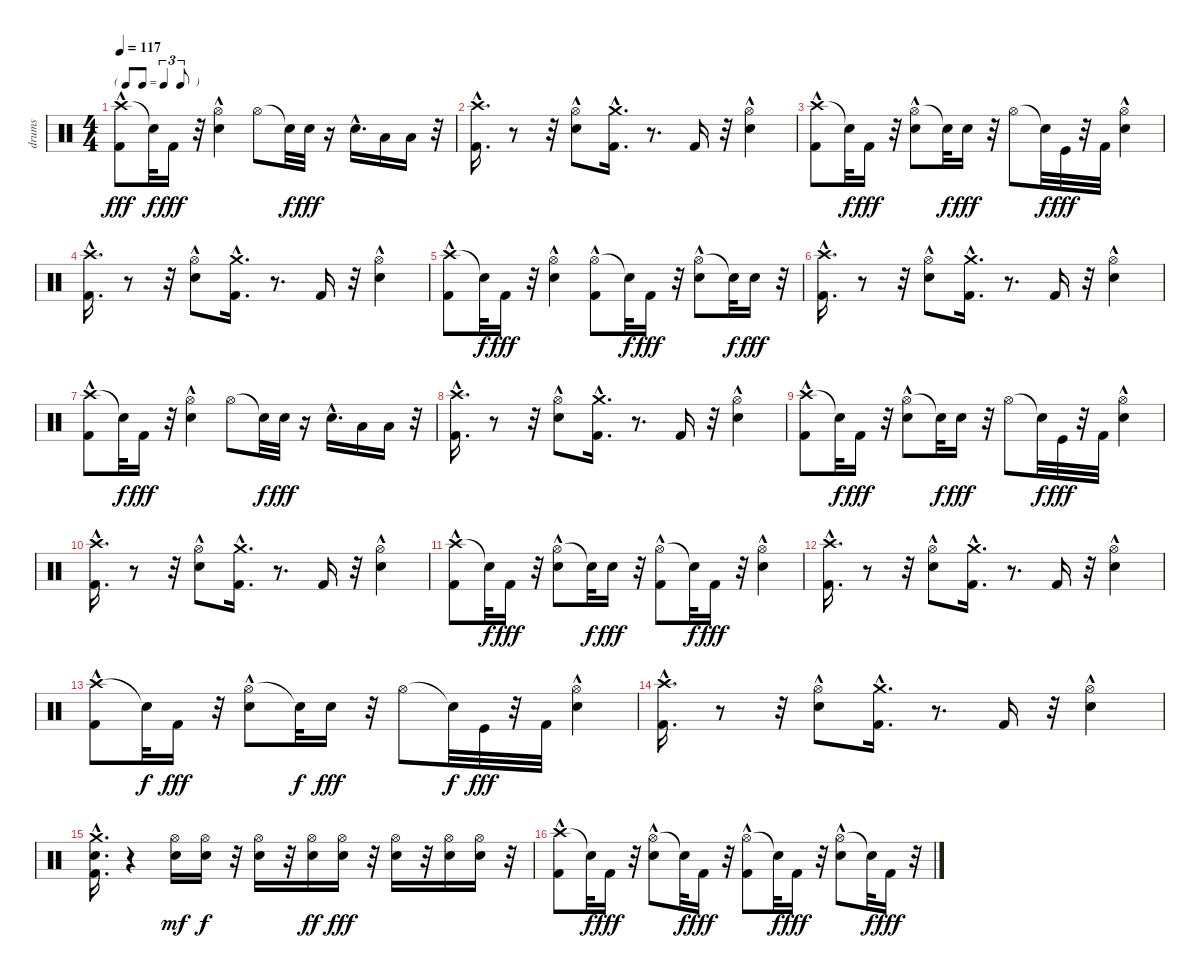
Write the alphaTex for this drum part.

\track ("drums" "drums") {instrument percussion}
\staff {score}
\articulation defaults
\ts (4 4)
\tf triplet8th
\tempo 117
\clef neutral
\ks c
("Crash high (hit)" "Kick (hit) 2"{hac}).8{dy fff} "Snare (hit)"{t}.32{dy f} "Kick (hit) 2".16{dy fff} r.32 ("Hi-Hat (open)" "Electric Snare (hit)"{hac}).4 "Hi-Hat (open)".8 "Snare (hit)"{t}.32{dy f} "Electric Snare (hit)".32{dy fff} r.16 "Electric Snare (hit)"{hac}.16{d} "Low Floor Tom (hit)".16 "Low Floor Tom (hit)".16 r.32 |
("Kick (hit) 2"{hac} "Crash high (hit)"{hac}).16{d} r.8 r.32 ("Electric Snare (hit)"{hac} "Hi-Hat (open)").8 ("Kick (hit) 2"{hac} "Crash medium (hit)"{hac}).16{d} r.8{d} "Kick (hit) 2".16 r.32 ("Electric Snare (hit)"{hac} "Hi-Hat (open)").4 |
("Crash high (hit)" "Kick (hit) 2"{hac}).8 "Snare (hit)"{t}.32{dy f} "Kick (hit) 2".16{dy fff} r.32 ("Hi-Hat (open)" "Electric Snare (hit)"{hac}).8 "Snare (hit)"{t}.32{dy f} "Electric Snare (hit)".16{dy fff} r.32 "Hi-Hat (open)".8 "Snare (hit)"{t}.32{dy f} "Kick (hit)".32{dy fff} r.32 "Kick (hit) 2".32 ("Hi-Hat (open)" "Electric Snare (hit)"{hac}).4 |
("Kick (hit) 2"{hac} "Crash high (hit)"{hac}).16{d} r.8 r.32 ("Electric Snare (hit)"{hac} "Hi-Hat (open)").8 ("Kick (hit) 2"{hac} "Crash medium (hit)"{hac}).16{d} r.8{d} "Kick (hit) 2".16 r.32 ("Electric Snare (hit)"{hac} "Hi-Hat (open)").4 |
("Crash high (hit)" "Kick (hit) 2"{hac}).8 "Snare (hit)"{t}.32{dy f} "Kick (hit) 2".16{dy fff} r.32 ("Hi-Hat (open)" "Electric Snare (hit)"{hac}).4 ("Hi-Hat (open)" "Kick (hit) 2"{hac}).8 "Snare (hit)"{t}.32{dy f} "Kick (hit) 2".16{dy fff} r.32 ("Hi-Hat (open)" "Electric Snare (hit)"{hac}).8 "Snare (hit)"{t}.32{dy f} "Electric Snare (hit)".16{dy fff} r.32 |
("Kick (hit) 2"{hac} "Crash high (hit)"{hac}).16{d} r.8 r.32 ("Electric Snare (hit)"{hac} "Hi-Hat (open)").8 ("Kick (hit) 2"{hac} "Crash medium (hit)"{hac}).16{d} r.8{d} "Kick (hit) 2".16 r.32 ("Electric Snare (hit)"{hac} "Hi-Hat (open)").4 |
("Crash high (hit)" "Kick (hit) 2"{hac}).8 "Snare (hit)"{t}.32{dy f} "Kick (hit) 2".16{dy fff} r.32 ("Hi-Hat (open)" "Electric Snare (hit)"{hac}).4 "Hi-Hat (open)".8 "Snare (hit)"{t}.32{dy f} "Electric Snare (hit)".32{dy fff} r.16 "Electric Snare (hit)"{hac}.16{d} "Low Floor Tom (hit)".16 "Low Floor Tom (hit)".16 r.32 |
("Kick (hit) 2"{hac} "Crash high (hit)"{hac}).16{d} r.8 r.32 ("Electric Snare (hit)"{hac} "Hi-Hat (open)").8 ("Kick (hit) 2"{hac} "Crash medium (hit)"{hac}).16{d} r.8{d} "Kick (hit) 2".16 r.32 ("Electric Snare (hit)"{hac} "Hi-Hat (open)").4 |
("Crash high (hit)" "Kick (hit) 2"{hac}).8 "Snare (hit)"{t}.32{dy f} "Kick (hit) 2".16{dy fff} r.32 ("Hi-Hat (open)" "Electric Snare (hit)"{hac}).8 "Snare (hit)"{t}.32{dy f} "Electric Snare (hit)".16{dy fff} r.32 "Hi-Hat (open)".8 "Snare (hit)"{t}.32{dy f} "Kick (hit)".32{dy fff} r.32 "Kick (hit) 2".32 ("Hi-Hat (open)" "Electric Snare (hit)"{hac}).4 |
("Kick (hit) 2"{hac} "Crash high (hit)"{hac}).16{d} r.8 r.32 ("Electric Snare (hit)"{hac} "Hi-Hat (open)").8 ("Kick (hit) 2"{hac} "Crash medium (hit)"{hac}).16{d} r.8{d} "Kick (hit) 2".16 r.32 ("Electric Snare (hit)"{hac} "Hi-Hat (open)").4 |
("Crash high (hit)" "Kick (hit) 2"{hac}).8 "Snare (hit)"{t}.32{dy f} "Kick (hit) 2".16{dy fff} r.32 ("Hi-Hat (open)" "Electric Snare (hit)"{hac}).8 "Snare (hit)"{t}.32{dy f} "Electric Snare (hit)".16{dy fff} r.32 ("Hi-Hat (open)" "Kick (hit) 2"{hac}).8 "Snare (hit)"{t}.32{dy f} "Kick (hit) 2".16{dy fff} r.32 ("Hi-Hat (open)" "Electric Snare (hit)"{hac}).4 |
("Kick (hit) 2"{hac} "Crash high (hit)"{hac}).16{d} r.8 r.32 ("Electric Snare (hit)"{hac} "Hi-Hat (open)").8 ("Kick (hit) 2"{hac} "Crash medium (hit)"{hac}).16{d} r.8{d} "Kick (hit) 2".16 r.32 ("Electric Snare (hit)"{hac} "Hi-Hat (open)").4 |
("Crash high (hit)" "Kick (hit) 2"{hac}).8 "Snare (hit)"{t}.32{dy f} "Kick (hit) 2".16{dy fff} r.32 ("Hi-Hat (open)" "Electric Snare (hit)"{hac}).8 "Snare (hit)"{t}.32{dy f} "Electric Snare (hit)".16{dy fff} r.32 "Hi-Hat (open)".8 "Snare (hit)"{t}.32{dy f} "Kick (hit)".32{dy fff} r.32 "Kick (hit) 2".32 ("Hi-Hat (open)" "Electric Snare (hit)"{hac}).4 |
("Kick (hit) 2"{hac} "Crash high (hit)"{hac}).16{d} r.8 r.32 ("Electric Snare (hit)"{hac} "Hi-Hat (open)").8 ("Kick (hit) 2"{hac} "Crash medium (hit)"{hac}).16{d} r.8{d} "Kick (hit) 2".16 r.32 ("Electric Snare (hit)"{hac} "Hi-Hat (open)").4 |
("Kick (hit) 2"{hac} "Electric Snare (hit)"{hac} "Crash medium (hit)"{hac}).16{d} r.4 ("Electric Snare (hit)" "Hi-Hat (open)").16{dy mf} ("Electric Snare (hit)" "Hi-Hat (open)").16{dy f} r.32 ("Electric Snare (hit)" "Hi-Hat (open)").16 r.32 ("Electric Snare (hit)" "Hi-Hat (open)").16{dy ff} ("Electric Snare (hit)" "Hi-Hat (open)").16{dy fff} r.32 ("Electric Snare (hit)" "Hi-Hat (open)").16 r.32 ("Electric Snare (hit)" "Hi-Hat (open)").16 ("Electric Snare (hit)" "Hi-Hat (open)").16 r.32 |
("Crash high (hit)" "Kick (hit) 2"{hac}).8 "Snare (hit)"{t}.32{dy f} "Kick (hit) 2".16{dy fff} r.32 ("Hi-Hat (open)" "Electric Snare (hit)"{hac}).8 "Snare (hit)"{t}.32{dy f} "Kick (hit) 2".16{dy fff} r.32 ("Hi-Hat (open)" "Kick (hit) 2"{hac}).8 "Snare (hit)"{t}.32{dy f} "Kick (hit) 2".16{dy fff} r.32 ("Hi-Hat (open)" "Electric Snare (hit)"{hac}).8 "Snare (hit)"{t}.32{dy f} "Kick (hit) 2".16{dy fff} r.32
